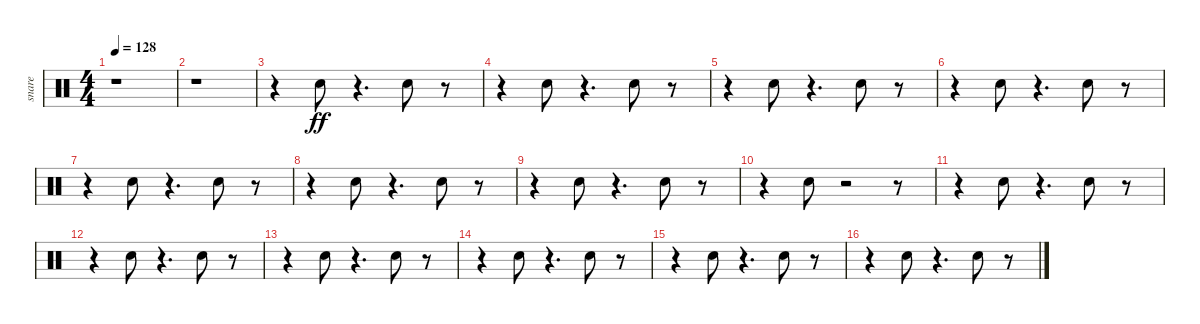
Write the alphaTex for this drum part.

\track ("snare" "snare") {instrument percussion}
\staff {score}
\articulation defaults
\ts (4 4)
\tempo 128
\clef neutral
\ks c
r.1{dy ff} |
r.1 |
r.4 "Electric Snare (hit)".8 r.4{d} "Electric Snare (hit)".8 r.8 |
r.4 "Electric Snare (hit)".8 r.4{d} "Electric Snare (hit)".8 r.8 |
r.4 "Electric Snare (hit)".8 r.4{d} "Electric Snare (hit)".8 r.8 |
r.4 "Electric Snare (hit)".8 r.4{d} "Electric Snare (hit)".8 r.8 |
r.4 "Electric Snare (hit)".8 r.4{d} "Electric Snare (hit)".8 r.8 |
r.4 "Electric Snare (hit)".8 r.4{d} "Electric Snare (hit)".8 r.8 |
r.4 "Electric Snare (hit)".8 r.4{d} "Electric Snare (hit)".8 r.8 |
r.4 "Electric Snare (hit)".8 r.2 r.8 |
r.4 "Electric Snare (hit)".8 r.4{d} "Electric Snare (hit)".8 r.8 |
r.4 "Electric Snare (hit)".8 r.4{d} "Electric Snare (hit)".8 r.8 |
r.4 "Electric Snare (hit)".8 r.4{d} "Electric Snare (hit)".8 r.8 |
r.4 "Electric Snare (hit)".8 r.4{d} "Electric Snare (hit)".8 r.8 |
r.4 "Electric Snare (hit)".8 r.4{d} "Electric Snare (hit)".8 r.8 |
r.4 "Electric Snare (hit)".8 r.4{d} "Electric Snare (hit)".8 r.8
